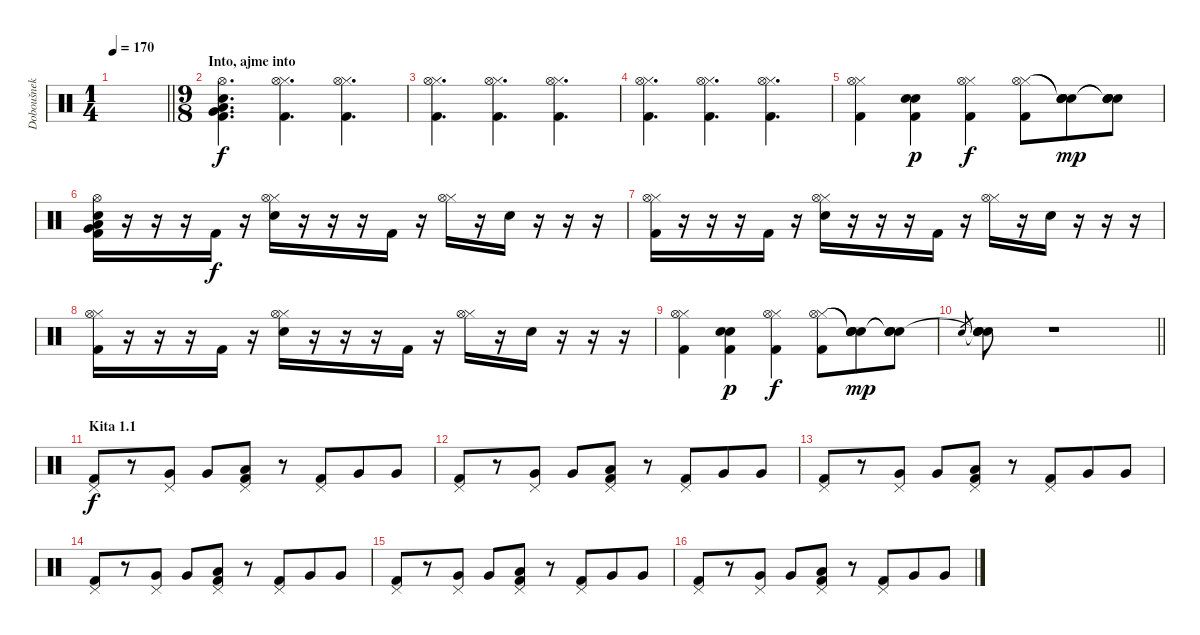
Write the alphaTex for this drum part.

\track ("Doboušnek" "Doboušnek") {instrument percussion}
\staff {score}
\articulation defaults
\ts (1 4)
\tempo 170
\clef neutral
\barLineRight lightlight
\ks c
|
\ts (9 8)
\section ("" "Into, ajme into")
("Hi-Hat (open)" "Very Low Tom (hit)" "Low Floor Tom (hit)" "Electric Snare (hit)" "Kick (hit) 2").4{d} ("Hi-Hat (closed)" "Hi-Hat (open)" "Kick (hit) 2").4{d} ("Hi-Hat (closed)" "Hi-Hat (open)" "Kick (hit) 2").4{d} |
("Hi-Hat (closed)" "Hi-Hat (open)" "Kick (hit) 2").4{d} ("Hi-Hat (closed)" "Hi-Hat (open)" "Kick (hit) 2").4{d} ("Hi-Hat (closed)" "Hi-Hat (open)" "Kick (hit) 2").4{d} |
("Hi-Hat (closed)" "Hi-Hat (open)" "Kick (hit) 2").4{d} ("Hi-Hat (closed)" "Hi-Hat (open)" "Kick (hit) 2").4{d} ("Hi-Hat (closed)" "Hi-Hat (open)" "Kick (hit) 2").4{d} |
("Hi-Hat (closed)" "Hi-Hat (open)" "Kick (hit) 2").4 ("Snare (hit) 2" "Electric Snare (hit)" "Kick (hit) 2").4{dy p} ("Hi-Hat (closed)" "Hi-Hat (open)" "Kick (hit) 2").4{dy f} ("Hi-Hat (closed)" "Hi-Hat (open)" "Kick (hit) 2").8 ("Snare (hit)"{t} "Snare (hit)"{t} "Electric Snare (hit)" "Snare (hit) 2").8{dy mp} ("Snare (hit)"{t} "Snare (hit)"{t} "Electric Snare (hit)" "Snare (hit) 2").8 |
("Hi-Hat (open)" "Electric Snare (hit)" "Low Floor Tom (hit)" "Very Low Tom (hit)" "Kick (hit) 2").16 r.16 r.16 r.16 "Kick (hit) 2".16{dy f} r.16 ("Hi-Hat (closed)" "Hi-Hat (open)" "Electric Snare (hit)").16 r.16 r.16 r.16 "Kick (hit) 2".16 r.16 ("Hi-Hat (closed)" "Hi-Hat (open)").16 r.16 "Electric Snare (hit)".16 r.16 r.16 r.16 |
("Hi-Hat (closed)" "Hi-Hat (open)" "Kick (hit) 2").16 r.16 r.16 r.16 "Kick (hit) 2".16 r.16 ("Hi-Hat (closed)" "Hi-Hat (open)" "Electric Snare (hit)").16 r.16 r.16 r.16 "Kick (hit) 2".16 r.16 ("Hi-Hat (closed)" "Hi-Hat (open)").16 r.16 "Electric Snare (hit)".16 r.16 r.16 r.16 |
("Hi-Hat (closed)" "Hi-Hat (open)" "Kick (hit) 2").16 r.16 r.16 r.16 "Kick (hit) 2".16 r.16 ("Hi-Hat (closed)" "Hi-Hat (open)" "Electric Snare (hit)").16 r.16 r.16 r.16 "Kick (hit) 2".16 r.16 ("Hi-Hat (closed)" "Hi-Hat (open)").16 r.16 "Electric Snare (hit)".16 r.16 r.16 r.16 |
("Hi-Hat (closed)" "Hi-Hat (open)" "Kick (hit) 2").4 ("Snare (hit) 2" "Electric Snare (hit)" "Kick (hit) 2").4{dy p} ("Hi-Hat (closed)" "Hi-Hat (open)" "Kick (hit) 2").4{dy f} ("Hi-Hat (closed)" "Hi-Hat (open)" "Kick (hit) 2").8 ("Snare (hit)"{t} "Snare (hit)"{t} "Electric Snare (hit)" "Snare (hit) 2").8{dy mp} ("Snare (hit)"{t} "Snare (hit)"{t} "Electric Snare (hit)" "Snare (hit) 2").8 |
\barLineRight lightlight "Electric Snare (hit)".8{gr}
("Snare (hit)"{t} "Snare (hit)"{t} "Electric Snare (hit)" "Snare (hit) 2").8 r.1 |
\section ("" "Kita 1.1")
("Pedal Hi-Hat (hit)" "Kick (hit) 2").8{dy f} r.8 ("Pedal Hi-Hat (hit)" "Very Low Tom (hit)").8 "Very Low Tom (hit)".8 ("Pedal Hi-Hat (hit)" "Low Tom (hit)" "Kick (hit) 2").8 r.8 ("Pedal Hi-Hat (hit)" "Kick (hit) 2").8 "Very Low Tom (hit)".8 "Very Low Tom (hit)".8 |
("Pedal Hi-Hat (hit)" "Kick (hit) 2").8 r.8 ("Pedal Hi-Hat (hit)" "Very Low Tom (hit)").8 "Very Low Tom (hit)".8 ("Pedal Hi-Hat (hit)" "Low Tom (hit)" "Kick (hit) 2").8 r.8 ("Pedal Hi-Hat (hit)" "Kick (hit) 2").8 "Very Low Tom (hit)".8 "Very Low Tom (hit)".8 |
("Pedal Hi-Hat (hit)" "Kick (hit) 2").8 r.8 ("Pedal Hi-Hat (hit)" "Very Low Tom (hit)").8 "Very Low Tom (hit)".8 ("Pedal Hi-Hat (hit)" "Low Tom (hit)" "Kick (hit) 2").8 r.8 ("Pedal Hi-Hat (hit)" "Kick (hit) 2").8 "Very Low Tom (hit)".8 "Very Low Tom (hit)".8 |
("Pedal Hi-Hat (hit)" "Kick (hit) 2").8 r.8 ("Pedal Hi-Hat (hit)" "Very Low Tom (hit)").8 "Very Low Tom (hit)".8 ("Pedal Hi-Hat (hit)" "Low Tom (hit)" "Kick (hit) 2").8 r.8 ("Pedal Hi-Hat (hit)" "Kick (hit) 2").8 "Very Low Tom (hit)".8 "Very Low Tom (hit)".8 |
("Pedal Hi-Hat (hit)" "Kick (hit) 2").8 r.8 ("Pedal Hi-Hat (hit)" "Very Low Tom (hit)").8 "Very Low Tom (hit)".8 ("Pedal Hi-Hat (hit)" "Low Tom (hit)" "Kick (hit) 2").8 r.8 ("Pedal Hi-Hat (hit)" "Kick (hit) 2").8 "Very Low Tom (hit)".8 "Very Low Tom (hit)".8 |
("Pedal Hi-Hat (hit)" "Kick (hit) 2").8 r.8 ("Pedal Hi-Hat (hit)" "Very Low Tom (hit)").8 "Very Low Tom (hit)".8 ("Pedal Hi-Hat (hit)" "Low Tom (hit)" "Kick (hit) 2").8 r.8 ("Pedal Hi-Hat (hit)" "Kick (hit) 2").8 "Very Low Tom (hit)".8 "Very Low Tom (hit)".8
